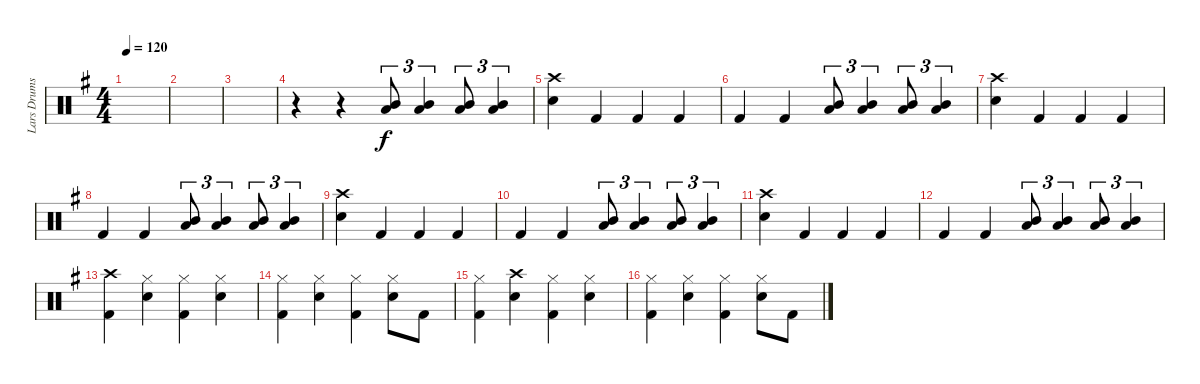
\track ("Lars Drums" "Lars Drums") {instrument percussion}
\staff {score}
\articulation defaults
\ts (4 4)
\tempo 120
\clef neutral
\ks g
|
|
|
r.4 r.4 ("Low Tom (hit)" "Mid Tom (hit)").8{tu (3 2)} ("Low Tom (hit)" "Mid Tom (hit)").4{tu (3 2)} ("Low Tom (hit)" "Mid Tom (hit)").8{tu (3 2)} ("Low Tom (hit)" "Mid Tom (hit)").4{tu (3 2)} |
("Crash high (hit)" "Snare (hit) 2").4 "Kick (hit) 2".4 "Kick (hit) 2".4 "Kick (hit) 2".4 |
"Kick (hit) 2".4 "Kick (hit) 2".4 ("Low Tom (hit)" "Mid Tom (hit)").8{tu (3 2)} ("Low Tom (hit)" "Mid Tom (hit)").4{tu (3 2)} ("Low Tom (hit)" "Mid Tom (hit)").8{tu (3 2)} ("Low Tom (hit)" "Mid Tom (hit)").4{tu (3 2)} |
("Crash high (hit)" "Snare (hit) 2").4 "Kick (hit) 2".4 "Kick (hit) 2".4 "Kick (hit) 2".4 |
"Kick (hit) 2".4 "Kick (hit) 2".4 ("Low Tom (hit)" "Mid Tom (hit)").8{tu (3 2)} ("Low Tom (hit)" "Mid Tom (hit)").4{tu (3 2)} ("Low Tom (hit)" "Mid Tom (hit)").8{tu (3 2)} ("Low Tom (hit)" "Mid Tom (hit)").4{tu (3 2)} |
("Crash high (hit)" "Snare (hit) 2").4 "Kick (hit) 2".4 "Kick (hit) 2".4 "Kick (hit) 2".4 |
"Kick (hit) 2".4 "Kick (hit) 2".4 ("Low Tom (hit)" "Mid Tom (hit)").8{tu (3 2)} ("Low Tom (hit)" "Mid Tom (hit)").4{tu (3 2)} ("Low Tom (hit)" "Mid Tom (hit)").8{tu (3 2)} ("Low Tom (hit)" "Mid Tom (hit)").4{tu (3 2)} |
("Crash high (hit)" "Snare (hit) 2").4 "Kick (hit) 2".4 "Kick (hit) 2".4 "Kick (hit) 2".4 |
"Kick (hit) 2".4 "Kick (hit) 2".4 ("Low Tom (hit)" "Mid Tom (hit)").8{tu (3 2)} ("Low Tom (hit)" "Mid Tom (hit)").4{tu (3 2)} ("Low Tom (hit)" "Mid Tom (hit)").8{tu (3 2)} ("Low Tom (hit)" "Mid Tom (hit)").4{tu (3 2)} |
("Crash high (hit)" "Kick (hit) 2").4 ("Hi-Hat (closed)" "Snare (hit) 2").4 ("Hi-Hat (closed)" "Kick (hit) 2").4 ("Hi-Hat (closed)" "Snare (hit) 2").4 |
("Hi-Hat (closed)" "Kick (hit) 2").4 ("Hi-Hat (closed)" "Snare (hit) 2").4 ("Hi-Hat (closed)" "Kick (hit) 2").4 ("Hi-Hat (closed)" "Snare (hit) 2").8 "Kick (hit) 2".8 |
("Hi-Hat (closed)" "Kick (hit) 2").4 ("Crash high (hit)" "Snare (hit) 2").4 ("Hi-Hat (closed)" "Kick (hit) 2").4 ("Hi-Hat (closed)" "Snare (hit) 2").4 |
("Hi-Hat (closed)" "Kick (hit) 2").4 ("Hi-Hat (closed)" "Snare (hit) 2").4 ("Hi-Hat (closed)" "Kick (hit) 2").4 ("Hi-Hat (closed)" "Snare (hit) 2").8 "Kick (hit) 2".8
